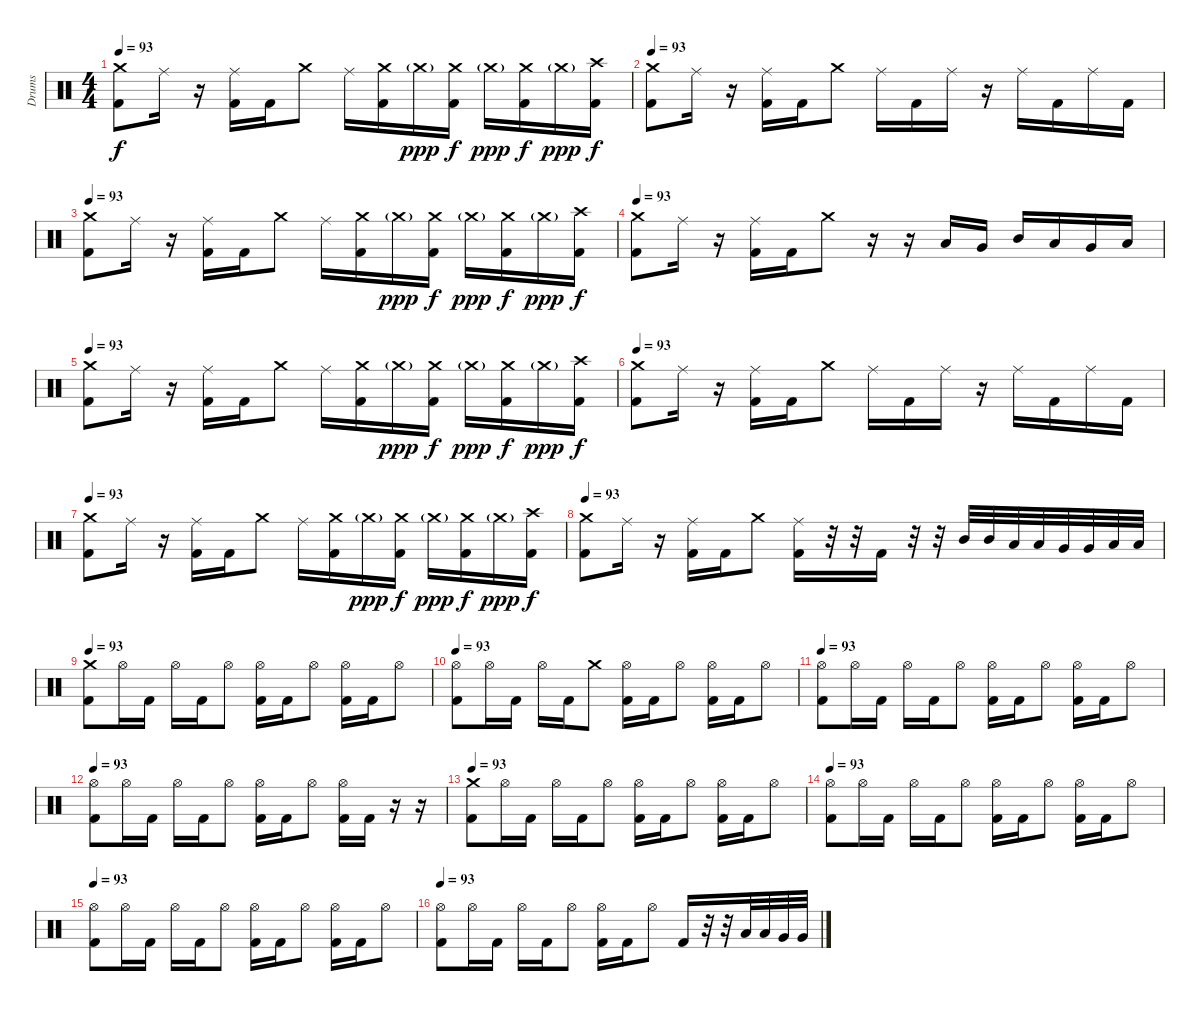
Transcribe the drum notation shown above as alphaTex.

\track ("Drums" "Drums") {instrument percussion}
\staff {score}
\articulation defaults
\ts (4 4)
\tempo 93
\clef neutral
\ks c
("Crash medium (hit)" "Kick (hit) 2").8{dy f} "Ride (middle)".16 r.16 ("Ride (middle)" "Kick (hit) 2").16 "Kick (hit) 2".16 "Crash medium (hit)".8 "Ride (middle)".16 ("Crash medium (hit)" "Kick (hit) 2").16 "Crash medium (hit)"{g}.16{dy ppp} ("Crash medium (hit)" "Kick (hit) 2").16{dy f} "Crash medium (hit)"{g}.16{dy ppp} ("Crash medium (hit)" "Kick (hit) 2").16{dy f} "Crash medium (hit)"{g}.16{dy ppp} ("Crash high (hit)" "Kick (hit) 2").16{dy f} |
\tempo 93
("Crash medium (hit)" "Kick (hit) 2").8 "Ride (middle)".16 r.16 ("Ride (middle)" "Kick (hit) 2").16 "Kick (hit) 2".16 "Crash medium (hit)".8 "Ride (middle)".16 "Kick (hit) 2".16 "Ride (middle)".16 r.16 "Ride (middle)".16 "Kick (hit) 2".16 "Ride (middle)".16 "Kick (hit) 2".16 |
\tempo 93
("Crash medium (hit)" "Kick (hit) 2").8 "Ride (middle)".16 r.16 ("Ride (middle)" "Kick (hit) 2").16 "Kick (hit) 2".16 "Crash medium (hit)".8 "Ride (middle)".16 ("Crash medium (hit)" "Kick (hit) 2").16 "Crash medium (hit)"{g}.16{dy ppp} ("Crash medium (hit)" "Kick (hit) 2").16{dy f} "Crash medium (hit)"{g}.16{dy ppp} ("Crash medium (hit)" "Kick (hit) 2").16{dy f} "Crash medium (hit)"{g}.16{dy ppp} ("Crash high (hit)" "Kick (hit) 2").16{dy f} |
\tempo 93
("Crash medium (hit)" "Kick (hit) 2").8 "Ride (middle)".16 r.16 ("Ride (middle)" "Kick (hit) 2").16 "Kick (hit) 2".16 "Crash medium (hit)".8 r.16 r.16 "Low Tom (hit)".16 "Very Low Tom (hit)".16 "Mid Tom (hit)".16 "Low Tom (hit)".16 "Very Low Tom (hit)".16 "Low Floor Tom (hit)".16 |
\tempo 93
("Crash medium (hit)" "Kick (hit) 2").8 "Ride (middle)".16 r.16 ("Ride (middle)" "Kick (hit) 2").16 "Kick (hit) 2".16 "Crash medium (hit)".8 "Ride (middle)".16 ("Crash medium (hit)" "Kick (hit) 2").16 "Crash medium (hit)"{g}.16{dy ppp} ("Crash medium (hit)" "Kick (hit) 2").16{dy f} "Crash medium (hit)"{g}.16{dy ppp} ("Crash medium (hit)" "Kick (hit) 2").16{dy f} "Crash medium (hit)"{g}.16{dy ppp} ("Crash high (hit)" "Kick (hit) 2").16{dy f} |
\tempo 93
("Crash medium (hit)" "Kick (hit) 2").8 "Ride (middle)".16 r.16 ("Ride (middle)" "Kick (hit) 2").16 "Kick (hit) 2".16 "Crash medium (hit)".8 "Ride (middle)".16 "Kick (hit) 2".16 "Ride (middle)".16 r.16 "Ride (middle)".16 "Kick (hit) 2".16 "Ride (middle)".16 "Kick (hit) 2".16 |
\tempo 93
("Crash medium (hit)" "Kick (hit) 2").8 "Ride (middle)".16 r.16 ("Ride (middle)" "Kick (hit) 2").16 "Kick (hit) 2".16 "Crash medium (hit)".8 "Ride (middle)".16 ("Crash medium (hit)" "Kick (hit) 2").16 "Crash medium (hit)"{g}.16{dy ppp} ("Crash medium (hit)" "Kick (hit) 2").16{dy f} "Crash medium (hit)"{g}.16{dy ppp} ("Crash medium (hit)" "Kick (hit) 2").16{dy f} "Crash medium (hit)"{g}.16{dy ppp} ("Crash high (hit)" "Kick (hit) 2").16{dy f} |
\tempo 93
("Crash medium (hit)" "Kick (hit) 2").8 "Ride (middle)".16 r.16 ("Ride (middle)" "Kick (hit) 2").16 "Kick (hit) 2".16 "Crash medium (hit)".8 ("Ride (middle)" "Kick (hit) 2").16 r.32 r.32 "Kick (hit) 2".16 r.32 r.32 "Mid Tom (hit)".32 "Mid Tom (hit)".32 "Low Tom (hit)".32 "Low Tom (hit)".32 "Very Low Tom (hit)".32 "Very Low Tom (hit)".32 "Low Floor Tom (hit)".32 "Low Floor Tom (hit)".32 |
\tempo 93
("Crash medium (hit)" "Kick (hit) 2").8 "Hi-Hat (open)".16 "Kick (hit) 2".16 "Hi-Hat (open)".16 "Kick (hit) 2".16 "Hi-Hat (open)".8 ("Hi-Hat (open)" "Kick (hit) 2").16 "Kick (hit) 2".16 "Hi-Hat (open)".8 ("Hi-Hat (open)" "Kick (hit) 2").16 "Kick (hit) 2".16 "Hi-Hat (open)".8 |
\tempo 93
("Hi-Hat (open)" "Kick (hit) 2").8 "Hi-Hat (open)".16 "Kick (hit) 2".16 "Hi-Hat (open)".16 "Kick (hit) 2".16 "Crash medium (hit)".8 ("Hi-Hat (open)" "Kick (hit) 2").16 "Kick (hit) 2".16 "Hi-Hat (open)".8 ("Hi-Hat (open)" "Kick (hit) 2").16 "Kick (hit) 2".16 "Hi-Hat (open)".8 |
\tempo 93
("Hi-Hat (open)" "Kick (hit) 2").8 "Hi-Hat (open)".16 "Kick (hit) 2".16 "Hi-Hat (open)".16 "Kick (hit) 2".16 "Hi-Hat (open)".8 ("Hi-Hat (open)" "Kick (hit) 2").16 "Kick (hit) 2".16 "Hi-Hat (open)".8 ("Hi-Hat (open)" "Kick (hit) 2").16 "Kick (hit) 2".16 "Hi-Hat (open)".8 |
\tempo 93
("Hi-Hat (open)" "Kick (hit) 2").8 "Hi-Hat (open)".16 "Kick (hit) 2".16 "Hi-Hat (open)".16 "Kick (hit) 2".16 "Hi-Hat (open)".8 ("Hi-Hat (open)" "Kick (hit) 2").16 "Kick (hit) 2".16 "Hi-Hat (open)".8 ("Hi-Hat (open)" "Kick (hit) 2").16 "Kick (hit) 2".16 r.16 r.16 |
\tempo 93
("Crash medium (hit)" "Kick (hit) 2").8 "Hi-Hat (open)".16 "Kick (hit) 2".16 "Hi-Hat (open)".16 "Kick (hit) 2".16 "Hi-Hat (open)".8 ("Hi-Hat (open)" "Kick (hit) 2").16 "Kick (hit) 2".16 "Hi-Hat (open)".8 ("Hi-Hat (open)" "Kick (hit) 2").16 "Kick (hit) 2".16 "Hi-Hat (open)".8 |
\tempo 93
("Hi-Hat (open)" "Kick (hit) 2").8 "Hi-Hat (open)".16 "Kick (hit) 2".16 "Hi-Hat (open)".16 "Kick (hit) 2".16 "Hi-Hat (open)".8 ("Hi-Hat (open)" "Kick (hit) 2").16 "Kick (hit) 2".16 "Hi-Hat (open)".8 ("Hi-Hat (open)" "Kick (hit) 2").16 "Kick (hit) 2".16 "Hi-Hat (open)".8 |
\tempo 93
("Hi-Hat (open)" "Kick (hit) 2").8 "Hi-Hat (open)".16 "Kick (hit) 2".16 "Hi-Hat (open)".16 "Kick (hit) 2".16 "Hi-Hat (open)".8 ("Hi-Hat (open)" "Kick (hit) 2").16 "Kick (hit) 2".16 "Hi-Hat (open)".8 ("Hi-Hat (open)" "Kick (hit) 2").16 "Kick (hit) 2".16 "Hi-Hat (open)".8 |
\tempo 93
("Hi-Hat (open)" "Kick (hit) 2").8 "Hi-Hat (open)".16 "Kick (hit) 2".16 "Hi-Hat (open)".16 "Kick (hit) 2".16 "Hi-Hat (open)".8 ("Hi-Hat (open)" "Kick (hit) 2").16 "Kick (hit) 2".16 "Hi-Hat (open)".8 "Kick (hit) 2".16 r.32 r.32 "Low Tom (hit)".32 "Low Tom (hit)".32 "Very Low Tom (hit)".32 "Very Low Tom (hit)".32
